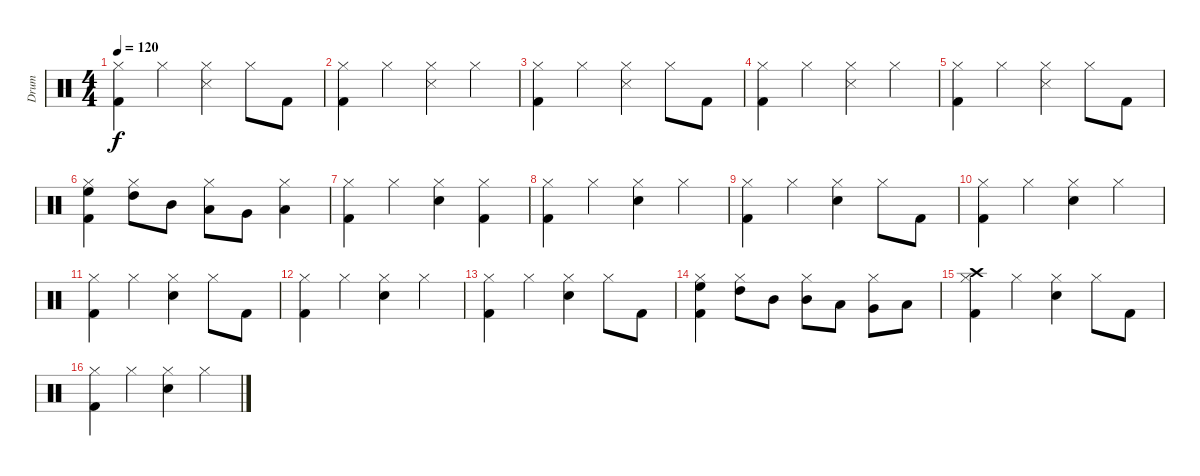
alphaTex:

\track ("Drum" "Drum") {instrument percussion}
\staff {score}
\articulation defaults
\ts (4 4)
\tempo 120
\clef neutral
\ks c
("Hi-Hat (closed)" "Kick (hit) 2").4{dy f} "Hi-Hat (closed)".4 ("Hi-Hat (closed)" "Snare (side stick) 3").4 "Hi-Hat (closed)".8 "Kick (hit) 2".8 |
("Hi-Hat (closed)" "Kick (hit) 2").4 "Hi-Hat (closed)".4 ("Hi-Hat (closed)" "Snare (side stick) 3").4 "Hi-Hat (closed)".4 |
("Hi-Hat (closed)" "Kick (hit) 2").4 "Hi-Hat (closed)".4 ("Hi-Hat (closed)" "Snare (side stick) 3").4 "Hi-Hat (closed)".8 "Kick (hit) 2".8 |
("Hi-Hat (closed)" "Kick (hit) 2").4 "Hi-Hat (closed)".4 ("Hi-Hat (closed)" "Snare (side stick) 3").4 "Hi-Hat (closed)".4 |
("Hi-Hat (closed)" "Kick (hit) 2").4 "Hi-Hat (closed)".4 ("Hi-Hat (closed)" "Snare (side stick) 3").4 "Hi-Hat (closed)".8 "Kick (hit) 2".8 |
("Hi-Hat (closed)" "High Floor Tom (hit)" "Kick (hit) 2").4 ("Hi-Hat (closed)" "High Tom (hit)").8 "Mid Tom (hit)".8 ("Hi-Hat (closed)" "Low Tom (hit)").8 "Very Low Tom (hit)".8 ("Hi-Hat (closed)" "Low Floor Tom (hit)").4 |
("Hi-Hat (closed)" "Kick (hit) 2").4 "Hi-Hat (closed)".4 ("Hi-Hat (closed)" "Electric Snare (hit)").4 ("Hi-Hat (closed)" "Kick (hit) 2").4 |
("Hi-Hat (closed)" "Kick (hit) 2").4 "Hi-Hat (closed)".4 ("Hi-Hat (closed)" "Electric Snare (hit)").4 "Hi-Hat (closed)".4 |
("Hi-Hat (closed)" "Kick (hit) 2").4 "Hi-Hat (closed)".4 ("Hi-Hat (closed)" "Electric Snare (hit)").4 "Hi-Hat (closed)".8 "Kick (hit) 2".8 |
("Hi-Hat (closed)" "Kick (hit) 2").4 "Hi-Hat (closed)".4 ("Hi-Hat (closed)" "Electric Snare (hit)").4 "Hi-Hat (closed)".4 |
("Hi-Hat (closed)" "Kick (hit) 2").4 "Hi-Hat (closed)".4 ("Hi-Hat (closed)" "Electric Snare (hit)").4 "Hi-Hat (closed)".8 "Kick (hit) 2".8 |
("Hi-Hat (closed)" "Kick (hit) 2").4 "Hi-Hat (closed)".4 ("Hi-Hat (closed)" "Electric Snare (hit)").4 "Hi-Hat (closed)".4 |
("Hi-Hat (closed)" "Kick (hit) 2").4 "Hi-Hat (closed)".4 ("Hi-Hat (closed)" "Electric Snare (hit)").4 "Hi-Hat (closed)".8 "Kick (hit) 2".8 |
("Hi-Hat (closed)" "High Floor Tom (hit)" "Kick (hit) 2").4 ("Hi-Hat (closed)" "High Tom (hit)").8 "Mid Tom (hit)".8 ("Hi-Hat (closed)" "Mid Tom (hit)").8 "Low Tom (hit)".8 ("Hi-Hat (closed)" "Very Low Tom (hit)").8 "Low Floor Tom (hit)".8 |
("Hi-Hat (closed)" "Crash high (hit)" "Kick (hit) 2").4 "Hi-Hat (closed)".4 ("Hi-Hat (closed)" "Electric Snare (hit)").4 "Hi-Hat (closed)".8 "Kick (hit) 2".8 |
("Hi-Hat (closed)" "Kick (hit) 2").4 "Hi-Hat (closed)".4 ("Hi-Hat (closed)" "Electric Snare (hit)").4 "Hi-Hat (closed)".4
